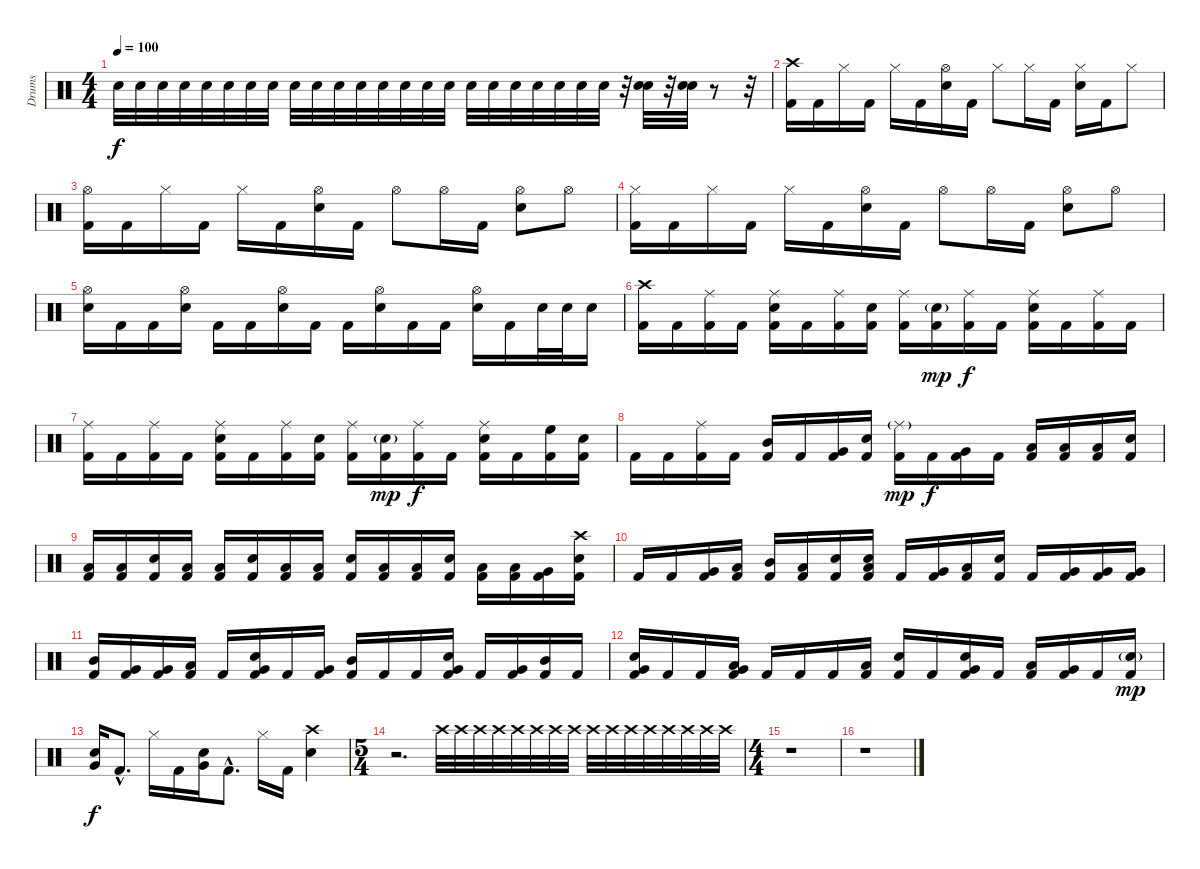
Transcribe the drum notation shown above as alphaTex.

\track ("Drums" "Drums") {instrument percussion}
\staff {score}
\articulation defaults
\ts (4 4)
\tempo 100
\clef neutral
\ks c "Electric Snare (hit)".32{dy f volume 13} "Electric Snare (hit)".32 "Electric Snare (hit)".32 "Electric Snare (hit)".32 "Electric Snare (hit)".32 "Electric Snare (hit)".32 "Electric Snare (hit)".32 "Electric Snare (hit)".32 "Electric Snare (hit)".32 "Electric Snare (hit)".32 "Electric Snare (hit)".32 "Electric Snare (hit)".32 "Electric Snare (hit)".32 "Electric Snare (hit)".32 "Electric Snare (hit)".32 "Electric Snare (hit)".32 "Electric Snare (hit)".32 "Electric Snare (hit)".32 "Electric Snare (hit)".32 "Electric Snare (hit)".32 "Electric Snare (hit)".32 "Electric Snare (hit)".32 "Electric Snare (hit)".32
r.32 ("Electric Snare (hit)" "Electric Snare (hit)").32 r.32 ("Electric Snare (hit)" "Electric Snare (hit)").32 r.8 r.32 |
("Crash high (hit)" "Kick (hit) 2").16 "Kick (hit) 2".16 "Hi-Hat (closed)".16 "Kick (hit) 2".16 "Hi-Hat (closed)".16 "Kick (hit) 2".16 ("Hi-Hat (open)" "Snare (hit) 2").16 "Kick (hit) 2".16 "Hi-Hat (closed)".8 "Hi-Hat (closed)".16 "Kick (hit) 2".16 ("Hi-Hat (closed)" "Snare (hit) 2").16 "Kick (hit) 2".16 "Hi-Hat (closed)".8 |
("Hi-Hat (open)" "Kick (hit) 2").16 "Kick (hit) 2".16 "Hi-Hat (closed)".16 "Kick (hit) 2".16 "Hi-Hat (closed)".16 "Kick (hit) 2".16 ("Hi-Hat (open)" "Snare (hit) 2").16 "Kick (hit) 2".16 "Hi-Hat (open)".8 "Hi-Hat (open)".16 "Kick (hit) 2".16 ("Hi-Hat (open)" "Snare (hit) 2").8 "Hi-Hat (open)".8 |
("Hi-Hat (closed)" "Kick (hit) 2").16 "Kick (hit) 2".16 "Hi-Hat (closed)".16 "Kick (hit) 2".16 "Hi-Hat (closed)".16 "Kick (hit) 2".16 ("Hi-Hat (open)" "Snare (hit) 2").16 "Kick (hit) 2".16 "Hi-Hat (open)".8 "Hi-Hat (open)".16 "Kick (hit) 2".16 ("Hi-Hat (open)" "Snare (hit) 2").8 "Hi-Hat (open)".8 |
("Hi-Hat (open)" "Snare (hit) 2").16 "Kick (hit) 2".16 "Kick (hit) 2".16 ("Hi-Hat (open)" "Snare (hit) 2").16 "Kick (hit) 2".16 "Kick (hit) 2".16 ("Hi-Hat (open)" "Snare (hit) 2").16 "Kick (hit) 2".16 "Kick (hit) 2".16 ("Hi-Hat (open)" "Snare (hit) 2").16 "Kick (hit) 2".16 "Kick (hit) 2".16 ("Hi-Hat (open)" "Snare (hit) 2").16 "Kick (hit) 2".16 "Snare (hit) 2".32 "Snare (hit) 2".32 "Snare (hit) 2".16 |
("Crash high (hit)" "Kick (hit) 2").16 "Kick (hit) 2".16 ("Ride (middle)" "Kick (hit) 2").16 "Kick (hit) 2".16 ("Ride (middle)" "Snare (hit) 2" "Kick (hit) 2").16 "Kick (hit) 2".16 ("Ride (middle)" "Kick (hit) 2").16 ("Snare (hit) 2" "Kick (hit) 2").16 ("Ride (middle)" "Kick (hit) 2").16 ("Snare (hit) 2"{g} "Kick (hit) 2").16{dy mp} ("Ride (middle)" "Kick (hit) 2").16{dy f} "Kick (hit) 2".16 ("Ride (middle)" "Snare (hit) 2" "Kick (hit) 2").16 "Kick (hit) 2".16 ("Ride (middle)" "Kick (hit) 2").16 "Kick (hit) 2".16 |
("Ride (middle)" "Kick (hit) 2").16 "Kick (hit) 2".16 ("Ride (middle)" "Kick (hit) 2").16 "Kick (hit) 2".16 ("Ride (middle)" "Snare (hit) 2" "Kick (hit) 2").16 "Kick (hit) 2".16 ("Ride (middle)" "Kick (hit) 2").16 ("Snare (hit) 2" "Kick (hit) 2").16 ("Ride (middle)" "Kick (hit) 2").16 ("Snare (hit) 2"{g} "Kick (hit) 2").16{dy mp} ("Ride (middle)" "Kick (hit) 2").16{dy f} "Kick (hit) 2".16 ("Ride (middle)" "Snare (hit) 2" "Kick (hit) 2").16 "Kick (hit) 2".16 ("High Floor Tom (hit)" "Kick (hit) 2").16 ("Snare (hit) 2" "Kick (hit) 2").16 |
"Kick (hit) 2".16 "Kick (hit) 2".16 ("Ride (middle)" "Kick (hit) 2").16 "Kick (hit) 2".16 ("Mid Tom (hit)" "Kick (hit) 2").16 "Kick (hit) 2".16 ("Very Low Tom (hit)" "Kick (hit) 2").16 ("Snare (hit) 2" "Kick (hit) 2").16 ("Ride (middle)"{g} "Kick (hit) 2").16{dy mp} "Kick (hit) 2".16{dy f} ("Very Low Tom (hit)" "Kick (hit) 2").16 "Kick (hit) 2".16 ("Low Floor Tom (hit)" "Kick (hit) 2").16 ("Low Floor Tom (hit)" "Kick (hit) 2").16 ("Low Floor Tom (hit)" "Kick (hit) 2").16 ("Snare (hit) 2" "Kick (hit) 2").16 |
("Low Floor Tom (hit)" "Kick (hit) 2").16 ("Low Floor Tom (hit)" "Kick (hit) 2").16 ("Snare (hit) 2" "Kick (hit) 2").16 ("Low Floor Tom (hit)" "Kick (hit) 2").16 ("Low Floor Tom (hit)" "Kick (hit) 2").16 ("Snare (hit) 2" "Kick (hit) 2").16 ("Low Floor Tom (hit)" "Kick (hit) 2").16 ("Low Floor Tom (hit)" "Kick (hit) 2").16 ("Snare (hit) 2" "Kick (hit) 2").16 ("Low Floor Tom (hit)" "Kick (hit) 2").16 ("Low Floor Tom (hit)" "Kick (hit) 2").16 ("Snare (hit) 2" "Kick (hit) 2").16 ("Low Floor Tom (hit)" "Kick (hit) 2").16 ("Low Floor Tom (hit)" "Kick (hit) 2").16 ("Very Low Tom (hit)" "Kick (hit) 2").16 ("Crash high (hit)" "Snare (hit) 2" "Kick (hit) 2").16 |
"Kick (hit) 2".16 "Kick (hit) 2".16 ("Very Low Tom (hit)" "Kick (hit) 2").16 ("Low Floor Tom (hit)" "Kick (hit) 2").16 ("Mid Tom (hit)" "Kick (hit) 2").16 ("Low Floor Tom (hit)" "Kick (hit) 2").16 ("Snare (hit) 2" "Kick (hit) 2").16 ("Snare (hit) 2" "Low Floor Tom (hit)" "Kick (hit) 2").16 "Kick (hit) 2".16 ("Very Low Tom (hit)" "Kick (hit) 2").16 ("Low Floor Tom (hit)" "Kick (hit) 2").16 ("Snare (hit) 2" "Kick (hit) 2").16 "Kick (hit) 2".16 ("Very Low Tom (hit)" "Kick (hit) 2").16 ("Very Low Tom (hit)" "Kick (hit) 2").16 ("Very Low Tom (hit)" "Kick (hit) 2").16 |
("Mid Tom (hit)" "Kick (hit) 2").16 ("Very Low Tom (hit)" "Kick (hit) 2").16 ("Very Low Tom (hit)" "Kick (hit) 2").16 ("Low Floor Tom (hit)" "Kick (hit) 2").16 "Kick (hit) 2".16 ("Very Low Tom (hit)" "Snare (hit) 2" "Kick (hit) 2").16 "Kick (hit) 2".16 ("Very Low Tom (hit)" "Kick (hit) 2").16 ("Mid Tom (hit)" "Kick (hit) 2").16 "Kick (hit) 2".16 "Kick (hit) 2".16 ("Snare (hit) 2" "Very Low Tom (hit)" "Kick (hit) 2").16 "Kick (hit) 2".16 ("Very Low Tom (hit)" "Kick (hit) 2").16 ("Mid Tom (hit)" "Kick (hit) 2").16 "Kick (hit) 2".16 |
("Snare (hit) 2" "Very Low Tom (hit)" "Kick (hit) 2").16 "Kick (hit) 2".16 "Kick (hit) 2".16 ("Very Low Tom (hit)" "Low Floor Tom (hit)" "Kick (hit) 2").16 "Kick (hit) 2".16 "Kick (hit) 2".16 "Kick (hit) 2".16 ("Low Floor Tom (hit)" "Kick (hit) 2").16 ("Snare (hit) 2" "Kick (hit) 2").16 "Kick (hit) 2".16 ("Snare (hit) 2" "Very Low Tom (hit)" "Kick (hit) 2").16 "Kick (hit) 2".16 ("Low Floor Tom (hit)" "Kick (hit) 2").16 ("Very Low Tom (hit)" "Kick (hit) 2").16 "Kick (hit) 2".16 ("Snare (hit) 2"{g} "Kick (hit) 2").16{dy mp} |
("Snare (hit) 2" "Very Low Tom (hit)").16{dy f} "Kick (hit) 2"{hac}.8{d} "Hi-Hat (closed)".16 "Kick (hit) 2".16 ("Snare (hit) 2" "Very Low Tom (hit)").16 "Kick (hit) 2"{hac}.8{d} "Hi-Hat (closed)".16 "Kick (hit) 2".16 ("Crash high (hit)" "Snare (hit) 2").4 |
\ts (5 4)
r.2{d} "Crash high (hit)".32{volume 1} "Crash high (hit)".32{volume 10} "Crash high (hit)".32 "Crash high (hit)".32 "Crash high (hit)".32 "Crash high (hit)".32 "Crash high (hit)".32 "Crash high (hit)".32 "Crash high (hit)".32 "Crash high (hit)".32 "Crash high (hit)".32 "Crash high (hit)".32 "Crash high (hit)".32 "Crash high (hit)".32 "Crash high (hit)".32 "Crash high (hit)".32 |
\ts (4 4)
r.1 |
r.1
